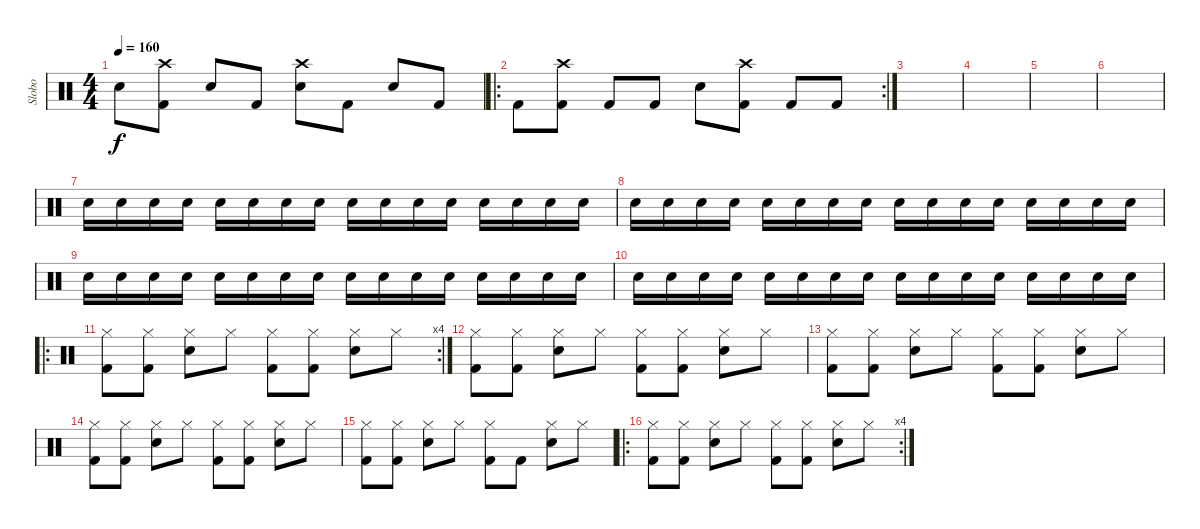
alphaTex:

\track ("Slobo" "Slobo") {instrument percussion}
\staff {score}
\articulation defaults
\ts (4 4)
\tempo 160
\clef neutral
\ks c "Snare (hit) 2".8{dy f}
("Crash high (hit)" "Kick (hit) 2").8 "Snare (hit) 2".8 "Kick (hit) 2".8 ("Crash high (hit)" "Snare (hit) 2").8 "Kick (hit) 2".8 "Snare (hit) 2".8 "Kick (hit) 2".8 |
\ro
\rc 2 "Kick (hit) 2".8
("Crash high (hit)" "Kick (hit) 2").8 "Kick (hit) 2".8 "Kick (hit) 2".8 "Snare (hit) 2".8 ("Crash high (hit)" "Kick (hit) 2").8 "Kick (hit) 2".8 "Kick (hit) 2".8 |
|
|
|
|
"Snare (hit) 2".16 "Snare (hit) 2".16 "Snare (hit) 2".16 "Snare (hit) 2".16 "Snare (hit) 2".16 "Snare (hit) 2".16 "Snare (hit) 2".16 "Snare (hit) 2".16 "Snare (hit) 2".16 "Snare (hit) 2".16 "Snare (hit) 2".16 "Snare (hit) 2".16 "Snare (hit) 2".16 "Snare (hit) 2".16 "Snare (hit) 2".16 "Snare (hit) 2".16 |
"Snare (hit) 2".16 "Snare (hit) 2".16 "Snare (hit) 2".16 "Snare (hit) 2".16 "Snare (hit) 2".16 "Snare (hit) 2".16 "Snare (hit) 2".16 "Snare (hit) 2".16 "Snare (hit) 2".16 "Snare (hit) 2".16 "Snare (hit) 2".16 "Snare (hit) 2".16 "Snare (hit) 2".16 "Snare (hit) 2".16 "Snare (hit) 2".16 "Snare (hit) 2".16 |
"Snare (hit) 2".16 "Snare (hit) 2".16 "Snare (hit) 2".16 "Snare (hit) 2".16 "Snare (hit) 2".16 "Snare (hit) 2".16 "Snare (hit) 2".16 "Snare (hit) 2".16 "Snare (hit) 2".16 "Snare (hit) 2".16 "Snare (hit) 2".16 "Snare (hit) 2".16 "Snare (hit) 2".16 "Snare (hit) 2".16 "Snare (hit) 2".16 "Snare (hit) 2".16 |
"Snare (hit) 2".16 "Snare (hit) 2".16 "Snare (hit) 2".16 "Snare (hit) 2".16 "Snare (hit) 2".16 "Snare (hit) 2".16 "Snare (hit) 2".16 "Snare (hit) 2".16 "Snare (hit) 2".16 "Snare (hit) 2".16 "Snare (hit) 2".16 "Snare (hit) 2".16 "Snare (hit) 2".16 "Snare (hit) 2".16 "Snare (hit) 2".16 "Snare (hit) 2".16 |
\ro
\rc 4
("Kick (hit) 2" "Hi-Hat (closed)").8 ("Kick (hit) 2" "Hi-Hat (closed)").8 ("Snare (hit) 2" "Hi-Hat (closed)").8 "Hi-Hat (closed)".8 ("Kick (hit) 2" "Hi-Hat (closed)").8 ("Kick (hit) 2" "Hi-Hat (closed)").8 ("Snare (hit) 2" "Hi-Hat (closed)").8 "Hi-Hat (closed)".8 |
("Kick (hit) 2" "Hi-Hat (closed)").8 ("Kick (hit) 2" "Hi-Hat (closed)").8 ("Snare (hit) 2" "Hi-Hat (closed)").8 "Hi-Hat (closed)".8 ("Kick (hit) 2" "Hi-Hat (closed)").8 ("Kick (hit) 2" "Hi-Hat (closed)").8 ("Snare (hit) 2" "Hi-Hat (closed)").8 "Hi-Hat (closed)".8 |
("Kick (hit) 2" "Hi-Hat (closed)").8 ("Kick (hit) 2" "Hi-Hat (closed)").8 ("Snare (hit) 2" "Hi-Hat (closed)").8 "Hi-Hat (closed)".8 ("Kick (hit) 2" "Hi-Hat (closed)").8 ("Kick (hit) 2" "Hi-Hat (closed)").8 ("Snare (hit) 2" "Hi-Hat (closed)").8 "Hi-Hat (closed)".8 |
("Kick (hit) 2" "Hi-Hat (closed)").8 ("Kick (hit) 2" "Hi-Hat (closed)").8 ("Snare (hit) 2" "Hi-Hat (closed)").8 "Hi-Hat (closed)".8 ("Kick (hit) 2" "Hi-Hat (closed)").8 ("Kick (hit) 2" "Hi-Hat (closed)").8 ("Snare (hit) 2" "Hi-Hat (closed)").8 "Hi-Hat (closed)".8 |
("Kick (hit) 2" "Hi-Hat (closed)").8 ("Kick (hit) 2" "Hi-Hat (closed)").8 ("Snare (hit) 2" "Hi-Hat (closed)").8 "Hi-Hat (closed)".8 ("Kick (hit) 2" "Hi-Hat (closed)").8 "Kick (hit) 2".8 ("Snare (hit) 2" "Hi-Hat (closed)").8 "Hi-Hat (closed)".8 |
\ro
\rc 4
("Kick (hit) 2" "Hi-Hat (closed)").8 ("Kick (hit) 2" "Hi-Hat (closed)").8 ("Snare (hit) 2" "Hi-Hat (closed)").8 "Hi-Hat (closed)".8 ("Kick (hit) 2" "Hi-Hat (closed)").8 ("Kick (hit) 2" "Hi-Hat (closed)").8 ("Snare (hit) 2" "Hi-Hat (closed)").8 "Hi-Hat (closed)".8
